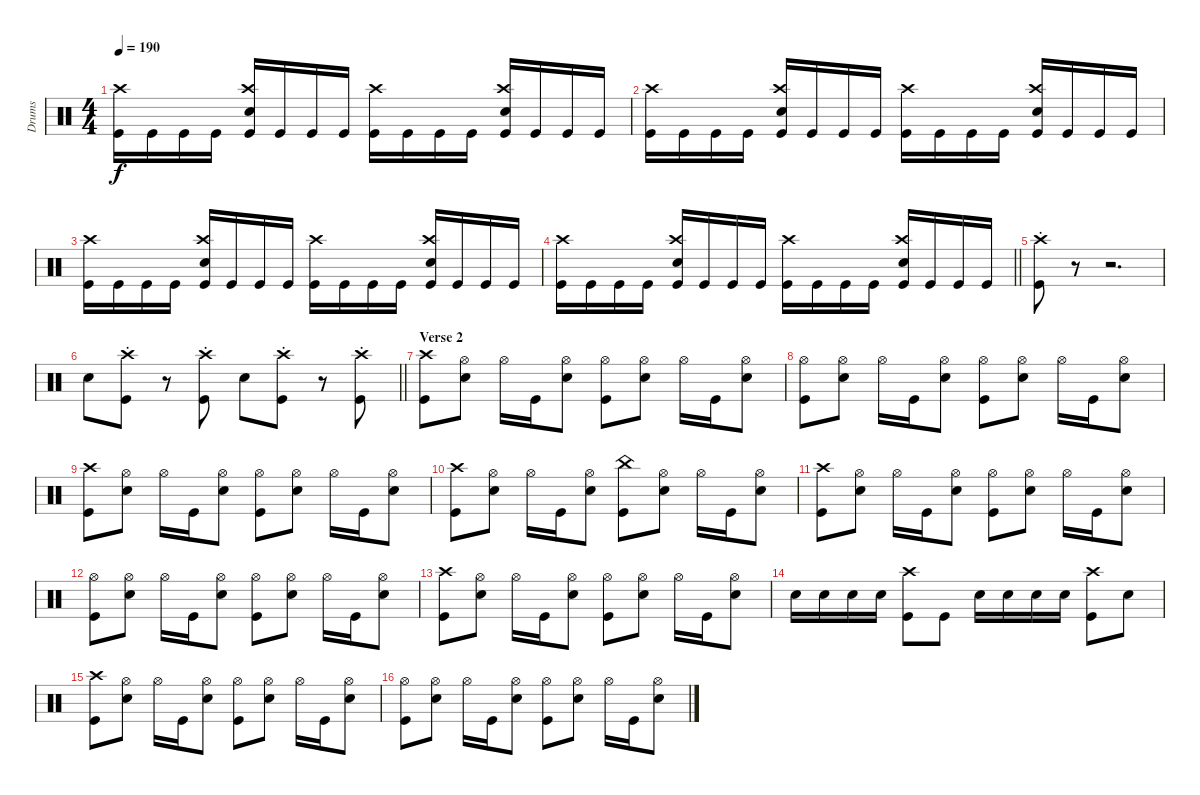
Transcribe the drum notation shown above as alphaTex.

\track ("Drums" "Drums") {instrument percussion}
\staff {score}
\articulation defaults
\ts (4 4)
\tempo 190
\clef neutral
\ks c
("Kick (hit)" "Crash high (hit)").16{dy f} "Kick (hit)".16 "Kick (hit)".16 "Kick (hit)".16 ("Snare (hit) 2" "Kick (hit)" "Crash high (hit)").16 "Kick (hit)".16 "Kick (hit)".16 "Kick (hit)".16 ("Kick (hit)" "Crash high (hit)").16 "Kick (hit)".16 "Kick (hit)".16 "Kick (hit)".16 ("Snare (hit) 2" "Kick (hit)" "Crash high (hit)").16 "Kick (hit)".16 "Kick (hit)".16 "Kick (hit)".16 |
("Kick (hit)" "Crash high (hit)").16 "Kick (hit)".16 "Kick (hit)".16 "Kick (hit)".16 ("Snare (hit) 2" "Kick (hit)" "Crash high (hit)").16 "Kick (hit)".16 "Kick (hit)".16 "Kick (hit)".16 ("Kick (hit)" "Crash high (hit)").16 "Kick (hit)".16 "Kick (hit)".16 "Kick (hit)".16 ("Snare (hit) 2" "Kick (hit)" "Crash high (hit)").16 "Kick (hit)".16 "Kick (hit)".16 "Kick (hit)".16 |
("Kick (hit)" "Crash high (hit)").16 "Kick (hit)".16 "Kick (hit)".16 "Kick (hit)".16 ("Snare (hit) 2" "Kick (hit)" "Crash high (hit)").16 "Kick (hit)".16 "Kick (hit)".16 "Kick (hit)".16 ("Kick (hit)" "Crash high (hit)").16 "Kick (hit)".16 "Kick (hit)".16 "Kick (hit)".16 ("Snare (hit) 2" "Kick (hit)" "Crash high (hit)").16 "Kick (hit)".16 "Kick (hit)".16 "Kick (hit)".16 |
\barLineRight lightlight
("Kick (hit)" "Crash high (hit)").16 "Kick (hit)".16 "Kick (hit)".16 "Kick (hit)".16 ("Snare (hit) 2" "Kick (hit)" "Crash high (hit)").16 "Kick (hit)".16 "Kick (hit)".16 "Kick (hit)".16 ("Kick (hit)" "Crash high (hit)").16 "Kick (hit)".16 "Kick (hit)".16 "Kick (hit)".16 ("Snare (hit) 2" "Kick (hit)" "Crash high (hit)").16 "Kick (hit)".16 "Kick (hit)".16 "Kick (hit)".16 |
\section ("" "")
("Kick (hit)" "Crash high (hit)"{st}).8 r.8 r.2{d} |
\barLineRight lightlight "Snare (hit) 2".8
("Kick (hit)" "Crash high (hit)"{st}).8 r.8 ("Kick (hit)" "Crash high (hit)"{st}).8 "Snare (hit) 2".8 ("Kick (hit)" "Crash high (hit)"{st}).8 r.8 ("Kick (hit)" "Crash high (hit)"{st}).8 |
\section ("" "Verse 2")
("Kick (hit)" "Crash high (hit)").8 ("Snare (hit) 2" "Hi-Hat (open)").8 "Hi-Hat (open)".16 "Kick (hit)".16 ("Snare (hit) 2" "Hi-Hat (open)").8 ("Kick (hit)" "Hi-Hat (open)").8 ("Snare (hit) 2" "Hi-Hat (open)").8 "Hi-Hat (open)".16 "Kick (hit)".16 ("Snare (hit) 2" "Hi-Hat (open)").8 |
("Kick (hit)" "Hi-Hat (open)").8 ("Snare (hit) 2" "Hi-Hat (open)").8 "Hi-Hat (open)".16 "Kick (hit)".16 ("Snare (hit) 2" "Hi-Hat (open)").8 ("Kick (hit)" "Hi-Hat (open)").8 ("Snare (hit) 2" "Hi-Hat (open)").8 "Hi-Hat (open)".16 "Kick (hit)".16 ("Snare (hit) 2" "Hi-Hat (open)").8 |
("Kick (hit)" "Crash high (hit)").8 ("Snare (hit) 2" "Hi-Hat (open)").8 "Hi-Hat (open)".16 "Kick (hit)".16 ("Snare (hit) 2" "Hi-Hat (open)").8 ("Kick (hit)" "Hi-Hat (open)").8 ("Snare (hit) 2" "Hi-Hat (open)").8 "Hi-Hat (open)".16 "Kick (hit)".16 ("Snare (hit) 2" "Hi-Hat (open)").8 |
("Kick (hit)" "Crash high (hit)").8 ("Snare (hit) 2" "Hi-Hat (open)").8 "Hi-Hat (open)".16 "Kick (hit)".16 ("Snare (hit) 2" "Hi-Hat (open)").8 ("Kick (hit)" "China (hit)").8 ("Snare (hit) 2" "Hi-Hat (open)").8 "Hi-Hat (open)".16 "Kick (hit)".16 ("Snare (hit) 2" "Hi-Hat (open)").8 |
("Kick (hit)" "Crash high (hit)").8 ("Snare (hit) 2" "Hi-Hat (open)").8 "Hi-Hat (open)".16 "Kick (hit)".16 ("Snare (hit) 2" "Hi-Hat (open)").8 ("Kick (hit)" "Hi-Hat (open)").8 ("Snare (hit) 2" "Hi-Hat (open)").8 "Hi-Hat (open)".16 "Kick (hit)".16 ("Snare (hit) 2" "Hi-Hat (open)").8 |
("Kick (hit)" "Hi-Hat (open)").8 ("Snare (hit) 2" "Hi-Hat (open)").8 "Hi-Hat (open)".16 "Kick (hit)".16 ("Snare (hit) 2" "Hi-Hat (open)").8 ("Kick (hit)" "Hi-Hat (open)").8 ("Snare (hit) 2" "Hi-Hat (open)").8 "Hi-Hat (open)".16 "Kick (hit)".16 ("Snare (hit) 2" "Hi-Hat (open)").8 |
("Kick (hit)" "Crash high (hit)").8 ("Snare (hit) 2" "Hi-Hat (open)").8 "Hi-Hat (open)".16 "Kick (hit)".16 ("Snare (hit) 2" "Hi-Hat (open)").8 ("Kick (hit)" "Hi-Hat (open)").8 ("Snare (hit) 2" "Hi-Hat (open)").8 "Hi-Hat (open)".16 "Kick (hit)".16 ("Snare (hit) 2" "Hi-Hat (open)").8 |
"Snare (hit) 2".16 "Snare (hit) 2".16 "Snare (hit) 2".16 "Snare (hit) 2".16 ("Kick (hit)" "Crash high (hit)").8 "Kick (hit)".8 "Snare (hit) 2".16 "Snare (hit) 2".16 "Snare (hit) 2".16 "Snare (hit) 2".16 ("Kick (hit)" "Crash high (hit)").8 "Snare (hit) 2".8 |
("Kick (hit)" "Crash high (hit)").8 ("Snare (hit) 2" "Hi-Hat (open)").8 "Hi-Hat (open)".16 "Kick (hit)".16 ("Snare (hit) 2" "Hi-Hat (open)").8 ("Kick (hit)" "Hi-Hat (open)").8 ("Snare (hit) 2" "Hi-Hat (open)").8 "Hi-Hat (open)".16 "Kick (hit)".16 ("Snare (hit) 2" "Hi-Hat (open)").8 |
("Kick (hit)" "Hi-Hat (open)").8 ("Snare (hit) 2" "Hi-Hat (open)").8 "Hi-Hat (open)".16 "Kick (hit)".16 ("Snare (hit) 2" "Hi-Hat (open)").8 ("Kick (hit)" "Hi-Hat (open)").8 ("Snare (hit) 2" "Hi-Hat (open)").8 "Hi-Hat (open)".16 "Kick (hit)".16 ("Snare (hit) 2" "Hi-Hat (open)").8
